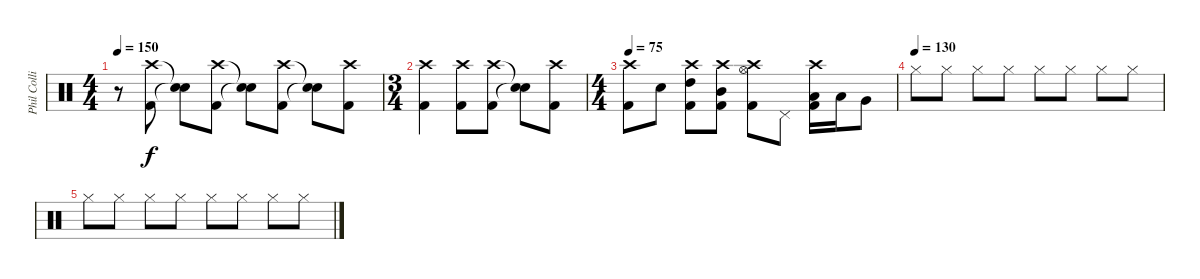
\track ("Phil Collins [Drums]" "Phil Colli") {instrument percussion}
\staff {score}
\articulation defaults
\ts (4 4)
\tempo 150
\clef neutral
\ks c
r.8{dy f} ("Crash high (hit)" "Kick (hit) 2").8 ("Snare (hit)"{t} "Snare (hit)"{t}).8 ("Crash high (hit)" "Kick (hit) 2").8 ("Snare (hit)"{t} "Snare (hit)"{t}).8 ("Crash high (hit)" "Kick (hit) 2").8 ("Snare (hit)"{t} "Snare (hit)"{t}).8 ("Crash high (hit)" "Kick (hit) 2").8 |
\ts (3 4)
("Crash high (hit)" "Kick (hit) 2").4 ("Crash high (hit)" "Kick (hit) 2").8 ("Crash high (hit)" "Kick (hit) 2").8 ("Snare (hit)"{t} "Snare (hit)"{t}).8 ("Crash high (hit)" "Kick (hit) 2").8 |
\ts (4 4)
\tempo 75
("Crash high (hit)" "Kick (hit) 2").8 "Electric Snare (hit)".8 ("Crash high (hit)" "High Tom (hit)" "Kick (hit) 2").8 ("Crash high (hit)" "Mid Tom (hit)" "Kick (hit) 2").8 ("Crash high (hit)" "Hi-Hat (open)" "Kick (hit) 2").8 "Pedal Hi-Hat (hit)".8 ("Crash high (hit)" "Low Tom (hit)" "Kick (hit) 2").16 "Low Tom (hit)".16 "Very Low Tom (hit)".8 |
\tempo (130)
"Hi-Hat (closed)".8 "Hi-Hat (closed)".8 "Hi-Hat (closed)".8 "Hi-Hat (closed)".8 "Hi-Hat (closed)".8 "Hi-Hat (closed)".8 "Hi-Hat (closed)".8 "Hi-Hat (closed)".8 |
"Hi-Hat (closed)".8 "Hi-Hat (closed)".8 "Hi-Hat (closed)".8 "Hi-Hat (closed)".8 "Hi-Hat (closed)".8 "Hi-Hat (closed)".8 "Hi-Hat (closed)".8 "Hi-Hat (closed)".8
